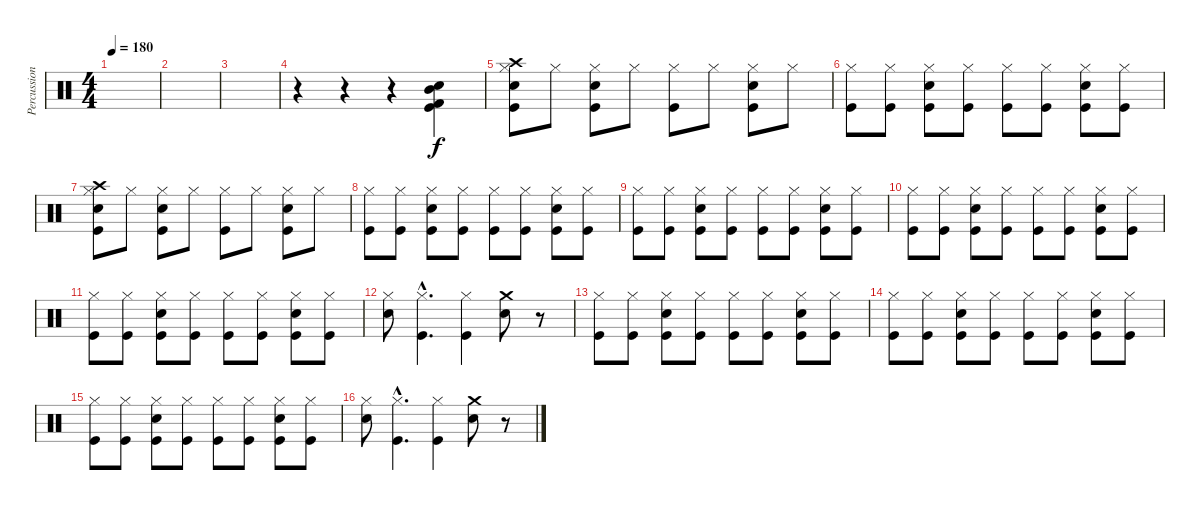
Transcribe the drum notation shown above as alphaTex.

\track ("Percussion" "Percussion") {instrument percussion}
\staff {score}
\articulation defaults
\ts (4 4)
\tempo 180
\clef neutral
\ks c
|
|
|
r.4 r.4 r.4 ("Mid Tom (hit)" "Kick (hit)" "Kick (hit) 2" "Snare (hit) 2").4 |
("Crash high (hit)" "Hi-Hat (closed)" "Snare (hit) 2" "Kick (hit)").8 "Hi-Hat (closed)".8 ("Hi-Hat (closed)" "Snare (hit) 2" "Kick (hit)").8 "Hi-Hat (closed)".8 ("Hi-Hat (closed)" "Kick (hit)").8 "Hi-Hat (closed)".8 ("Hi-Hat (closed)" "Snare (hit) 2" "Kick (hit)").8 "Hi-Hat (closed)".8 |
("Hi-Hat (closed)" "Kick (hit)").8 ("Hi-Hat (closed)" "Kick (hit)").8 ("Hi-Hat (closed)" "Snare (hit) 2" "Kick (hit)").8 ("Hi-Hat (closed)" "Kick (hit)").8 ("Hi-Hat (closed)" "Kick (hit)").8 ("Hi-Hat (closed)" "Kick (hit)").8 ("Hi-Hat (closed)" "Snare (hit) 2" "Kick (hit)").8 ("Hi-Hat (closed)" "Kick (hit)").8 |
("Crash high (hit)" "Hi-Hat (closed)" "Snare (hit) 2" "Kick (hit)").8 "Hi-Hat (closed)".8 ("Hi-Hat (closed)" "Snare (hit) 2" "Kick (hit)").8 "Hi-Hat (closed)".8 ("Hi-Hat (closed)" "Kick (hit)").8 "Hi-Hat (closed)".8 ("Hi-Hat (closed)" "Snare (hit) 2" "Kick (hit)").8 "Hi-Hat (closed)".8 |
("Hi-Hat (closed)" "Kick (hit)").8 ("Hi-Hat (closed)" "Kick (hit)").8 ("Hi-Hat (closed)" "Snare (hit) 2" "Kick (hit)").8 ("Hi-Hat (closed)" "Kick (hit)").8 ("Hi-Hat (closed)" "Kick (hit)").8 ("Hi-Hat (closed)" "Kick (hit)").8 ("Hi-Hat (closed)" "Snare (hit) 2" "Kick (hit)").8 ("Hi-Hat (closed)" "Kick (hit)").8 |
("Hi-Hat (closed)" "Kick (hit)").8 ("Hi-Hat (closed)" "Kick (hit)").8 ("Hi-Hat (closed)" "Snare (hit) 2" "Kick (hit)").8 ("Hi-Hat (closed)" "Kick (hit)").8 ("Hi-Hat (closed)" "Kick (hit)").8 ("Hi-Hat (closed)" "Kick (hit)").8 ("Hi-Hat (closed)" "Snare (hit) 2" "Kick (hit)").8 ("Hi-Hat (closed)" "Kick (hit)").8 |
("Hi-Hat (closed)" "Kick (hit)").8 ("Hi-Hat (closed)" "Kick (hit)").8 ("Hi-Hat (closed)" "Snare (hit) 2" "Kick (hit)").8 ("Hi-Hat (closed)" "Kick (hit)").8 ("Hi-Hat (closed)" "Kick (hit)").8 ("Hi-Hat (closed)" "Kick (hit)").8 ("Hi-Hat (closed)" "Snare (hit) 2" "Kick (hit)").8 ("Hi-Hat (closed)" "Kick (hit)").8 |
("Hi-Hat (closed)" "Kick (hit)").8 ("Hi-Hat (closed)" "Kick (hit)").8 ("Hi-Hat (closed)" "Snare (hit) 2" "Kick (hit)").8 ("Hi-Hat (closed)" "Kick (hit)").8 ("Hi-Hat (closed)" "Kick (hit)").8 ("Hi-Hat (closed)" "Kick (hit)").8 ("Hi-Hat (closed)" "Snare (hit) 2" "Kick (hit)").8 ("Hi-Hat (closed)" "Kick (hit)").8 |
("Hi-Hat (closed)" "Snare (hit) 2").8 ("Hi-Hat (closed)"{hac} "Kick (hit)"{hac}).4{d} ("Hi-Hat (closed)" "Kick (hit)").4 ("Crash medium (hit)" "Snare (hit) 2").8 r.8 |
("Hi-Hat (closed)" "Kick (hit)").8 ("Hi-Hat (closed)" "Kick (hit)").8 ("Hi-Hat (closed)" "Snare (hit) 2" "Kick (hit)").8 ("Hi-Hat (closed)" "Kick (hit)").8 ("Hi-Hat (closed)" "Kick (hit)").8 ("Hi-Hat (closed)" "Kick (hit)").8 ("Hi-Hat (closed)" "Snare (hit) 2" "Kick (hit)").8 ("Hi-Hat (closed)" "Kick (hit)").8 |
("Hi-Hat (closed)" "Kick (hit)").8 ("Hi-Hat (closed)" "Kick (hit)").8 ("Hi-Hat (closed)" "Snare (hit) 2" "Kick (hit)").8 ("Hi-Hat (closed)" "Kick (hit)").8 ("Hi-Hat (closed)" "Kick (hit)").8 ("Hi-Hat (closed)" "Kick (hit)").8 ("Hi-Hat (closed)" "Snare (hit) 2" "Kick (hit)").8 ("Hi-Hat (closed)" "Kick (hit)").8 |
("Hi-Hat (closed)" "Kick (hit)").8 ("Hi-Hat (closed)" "Kick (hit)").8 ("Hi-Hat (closed)" "Snare (hit) 2" "Kick (hit)").8 ("Hi-Hat (closed)" "Kick (hit)").8 ("Hi-Hat (closed)" "Kick (hit)").8 ("Hi-Hat (closed)" "Kick (hit)").8 ("Hi-Hat (closed)" "Snare (hit) 2" "Kick (hit)").8 ("Hi-Hat (closed)" "Kick (hit)").8 |
("Hi-Hat (closed)" "Snare (hit) 2").8 ("Hi-Hat (closed)"{hac} "Kick (hit)"{hac}).4{d} ("Hi-Hat (closed)" "Kick (hit)").4 ("Crash medium (hit)" "Snare (hit) 2").8 r.8
